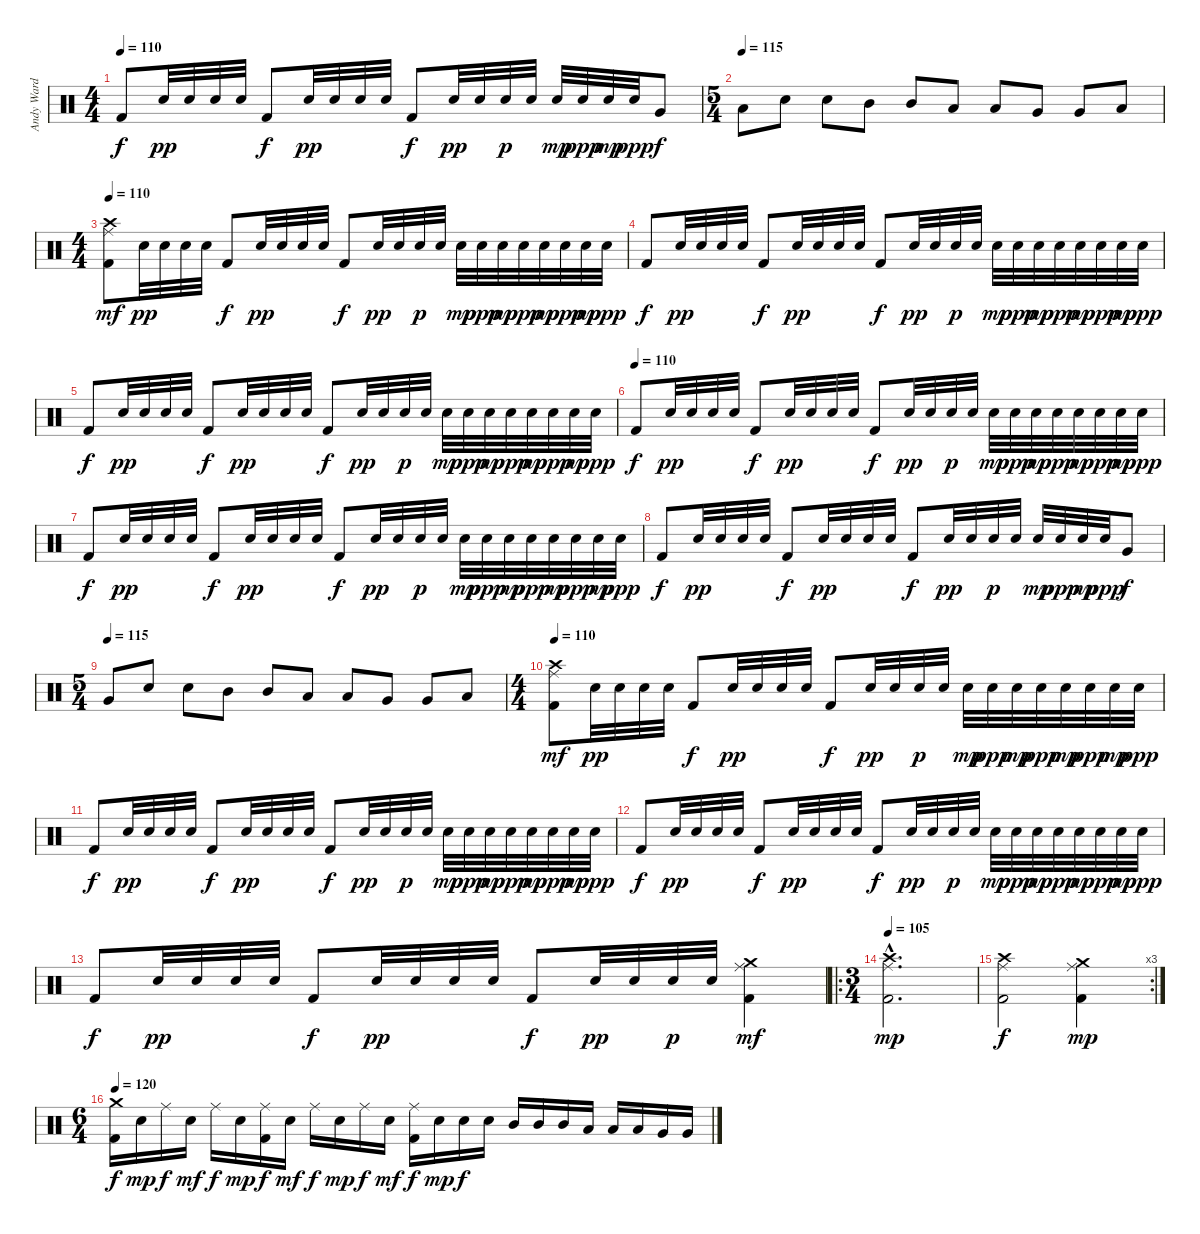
\track ("Andy Ward - Drums" "Andy Ward ") {instrument percussion}
\staff {score}
\articulation defaults
\ts (4 4)
\tempo 110
\clef neutral
\ks c "Kick (hit) 2".8{dy f} "Electric Snare (hit)".32{dy pp} "Electric Snare (hit)".32 "Electric Snare (hit)".32 "Electric Snare (hit)".32 "Kick (hit) 2".8{dy f} "Electric Snare (hit)".32{dy pp} "Electric Snare (hit)".32 "Electric Snare (hit)".32 "Electric Snare (hit)".32 "Kick (hit) 2".8{dy f} "Electric Snare (hit)".32{dy pp} "Electric Snare (hit)".32 "Electric Snare (hit)".32{dy p} "Electric Snare (hit)".32 "Electric Snare (hit)".32{dy mp} "Electric Snare (hit)".32{dy ppp} "Electric Snare (hit)".32{dy mp} "Electric Snare (hit)".32{dy ppp} "Very Low Tom (hit)".8{dy f}
|
\ts (5 4)
\tempo (115)
"Low Tom (hit)".8 "Electric Snare (hit)".8 "Electric Snare (hit)".8 "Mid Tom (hit)".8 "Mid Tom (hit)".8 "Low Tom (hit)".8 "Low Tom (hit)".8 "Very Low Tom (hit)".8 "Very Low Tom (hit)".8 "Low Floor Tom (hit)".8 |
\ts (4 4)
\tempo 110
("Ride (middle)" "Crash high (hit)" "Kick (hit) 2").8{dy mf} "Electric Snare (hit)".32{dy pp} "Electric Snare (hit)".32 "Electric Snare (hit)".32 "Electric Snare (hit)".32 "Kick (hit) 2".8{dy f} "Electric Snare (hit)".32{dy pp} "Electric Snare (hit)".32 "Electric Snare (hit)".32 "Electric Snare (hit)".32 "Kick (hit) 2".8{dy f} "Electric Snare (hit)".32{dy pp} "Electric Snare (hit)".32 "Electric Snare (hit)".32{dy p} "Electric Snare (hit)".32 "Electric Snare (hit)".32{dy mp} "Electric Snare (hit)".32{dy ppp} "Electric Snare (hit)".32{dy mp} "Electric Snare (hit)".32{dy ppp} "Electric Snare (hit)".32{dy mp} "Electric Snare (hit)".32{dy ppp} "Electric Snare (hit)".32{dy mp} "Electric Snare (hit)".32{dy ppp} |
"Kick (hit) 2".8{dy f} "Electric Snare (hit)".32{dy pp} "Electric Snare (hit)".32 "Electric Snare (hit)".32 "Electric Snare (hit)".32 "Kick (hit) 2".8{dy f} "Electric Snare (hit)".32{dy pp} "Electric Snare (hit)".32 "Electric Snare (hit)".32 "Electric Snare (hit)".32 "Kick (hit) 2".8{dy f} "Electric Snare (hit)".32{dy pp} "Electric Snare (hit)".32 "Electric Snare (hit)".32{dy p} "Electric Snare (hit)".32 "Electric Snare (hit)".32{dy mp} "Electric Snare (hit)".32{dy ppp} "Electric Snare (hit)".32{dy mp} "Electric Snare (hit)".32{dy ppp} "Electric Snare (hit)".32{dy mp} "Electric Snare (hit)".32{dy ppp} "Electric Snare (hit)".32{dy mp} "Electric Snare (hit)".32{dy ppp} |
"Kick (hit) 2".8{dy f} "Electric Snare (hit)".32{dy pp} "Electric Snare (hit)".32 "Electric Snare (hit)".32 "Electric Snare (hit)".32 "Kick (hit) 2".8{dy f} "Electric Snare (hit)".32{dy pp} "Electric Snare (hit)".32 "Electric Snare (hit)".32 "Electric Snare (hit)".32 "Kick (hit) 2".8{dy f} "Electric Snare (hit)".32{dy pp} "Electric Snare (hit)".32 "Electric Snare (hit)".32{dy p} "Electric Snare (hit)".32 "Electric Snare (hit)".32{dy mp} "Electric Snare (hit)".32{dy ppp} "Electric Snare (hit)".32{dy mp} "Electric Snare (hit)".32{dy ppp} "Electric Snare (hit)".32{dy mp} "Electric Snare (hit)".32{dy ppp} "Electric Snare (hit)".32{dy mp} "Electric Snare (hit)".32{dy ppp} |
\tempo (110)
"Kick (hit) 2".8{dy f} "Electric Snare (hit)".32{dy pp} "Electric Snare (hit)".32 "Electric Snare (hit)".32 "Electric Snare (hit)".32 "Kick (hit) 2".8{dy f} "Electric Snare (hit)".32{dy pp} "Electric Snare (hit)".32 "Electric Snare (hit)".32 "Electric Snare (hit)".32 "Kick (hit) 2".8{dy f} "Electric Snare (hit)".32{dy pp} "Electric Snare (hit)".32 "Electric Snare (hit)".32{dy p} "Electric Snare (hit)".32 "Electric Snare (hit)".32{dy mp} "Electric Snare (hit)".32{dy ppp} "Electric Snare (hit)".32{dy mp} "Electric Snare (hit)".32{dy ppp} "Electric Snare (hit)".32{dy mp} "Electric Snare (hit)".32{dy ppp} "Electric Snare (hit)".32{dy mp} "Electric Snare (hit)".32{dy ppp} |
"Kick (hit) 2".8{dy f} "Electric Snare (hit)".32{dy pp} "Electric Snare (hit)".32 "Electric Snare (hit)".32 "Electric Snare (hit)".32 "Kick (hit) 2".8{dy f} "Electric Snare (hit)".32{dy pp} "Electric Snare (hit)".32 "Electric Snare (hit)".32 "Electric Snare (hit)".32 "Kick (hit) 2".8{dy f} "Electric Snare (hit)".32{dy pp} "Electric Snare (hit)".32 "Electric Snare (hit)".32{dy p} "Electric Snare (hit)".32 "Electric Snare (hit)".32{dy mp} "Electric Snare (hit)".32{dy ppp} "Electric Snare (hit)".32{dy mp} "Electric Snare (hit)".32{dy ppp} "Electric Snare (hit)".32{dy mp} "Electric Snare (hit)".32{dy ppp} "Electric Snare (hit)".32{dy mp} "Electric Snare (hit)".32{dy ppp} |
"Kick (hit) 2".8{dy f} "Electric Snare (hit)".32{dy pp} "Electric Snare (hit)".32 "Electric Snare (hit)".32 "Electric Snare (hit)".32 "Kick (hit) 2".8{dy f} "Electric Snare (hit)".32{dy pp} "Electric Snare (hit)".32 "Electric Snare (hit)".32 "Electric Snare (hit)".32 "Kick (hit) 2".8{dy f} "Electric Snare (hit)".32{dy pp} "Electric Snare (hit)".32 "Electric Snare (hit)".32{dy p} "Electric Snare (hit)".32 "Electric Snare (hit)".32{dy mp} "Electric Snare (hit)".32{dy ppp} "Electric Snare (hit)".32{dy mp} "Electric Snare (hit)".32{dy ppp} "Very Low Tom (hit)".8{dy f} |
\ts (5 4)
\tempo (115)
"Very Low Tom (hit)".8 "Electric Snare (hit)".8 "Electric Snare (hit)".8 "Mid Tom (hit)".8 "Mid Tom (hit)".8 "Low Tom (hit)".8 "Low Tom (hit)".8 "Very Low Tom (hit)".8 "Very Low Tom (hit)".8 "Low Floor Tom (hit)".8 |
\ts (4 4)
\tempo 115
\tempo 110
("Ride (middle)" "Crash high (hit)" "Kick (hit) 2").8{dy mf} "Electric Snare (hit)".32{dy pp} "Electric Snare (hit)".32 "Electric Snare (hit)".32 "Electric Snare (hit)".32 "Kick (hit) 2".8{dy f} "Electric Snare (hit)".32{dy pp} "Electric Snare (hit)".32 "Electric Snare (hit)".32 "Electric Snare (hit)".32 "Kick (hit) 2".8{dy f} "Electric Snare (hit)".32{dy pp} "Electric Snare (hit)".32 "Electric Snare (hit)".32{dy p} "Electric Snare (hit)".32 "Electric Snare (hit)".32{dy mp} "Electric Snare (hit)".32{dy ppp} "Electric Snare (hit)".32{dy mp} "Electric Snare (hit)".32{dy ppp} "Electric Snare (hit)".32{dy mp} "Electric Snare (hit)".32{dy ppp} "Electric Snare (hit)".32{dy mp} "Electric Snare (hit)".32{dy ppp} |
"Kick (hit) 2".8{dy f} "Electric Snare (hit)".32{dy pp} "Electric Snare (hit)".32 "Electric Snare (hit)".32 "Electric Snare (hit)".32 "Kick (hit) 2".8{dy f} "Electric Snare (hit)".32{dy pp} "Electric Snare (hit)".32 "Electric Snare (hit)".32 "Electric Snare (hit)".32 "Kick (hit) 2".8{dy f} "Electric Snare (hit)".32{dy pp} "Electric Snare (hit)".32 "Electric Snare (hit)".32{dy p} "Electric Snare (hit)".32 "Electric Snare (hit)".32{dy mp} "Electric Snare (hit)".32{dy ppp} "Electric Snare (hit)".32{dy mp} "Electric Snare (hit)".32{dy ppp} "Electric Snare (hit)".32{dy mp} "Electric Snare (hit)".32{dy ppp} "Electric Snare (hit)".32{dy mp} "Electric Snare (hit)".32{dy ppp} |
"Kick (hit) 2".8{dy f} "Electric Snare (hit)".32{dy pp} "Electric Snare (hit)".32 "Electric Snare (hit)".32 "Electric Snare (hit)".32 "Kick (hit) 2".8{dy f} "Electric Snare (hit)".32{dy pp} "Electric Snare (hit)".32 "Electric Snare (hit)".32 "Electric Snare (hit)".32 "Kick (hit) 2".8{dy f} "Electric Snare (hit)".32{dy pp} "Electric Snare (hit)".32 "Electric Snare (hit)".32{dy p} "Electric Snare (hit)".32 "Electric Snare (hit)".32{dy mp} "Electric Snare (hit)".32{dy ppp} "Electric Snare (hit)".32{dy mp} "Electric Snare (hit)".32{dy ppp} "Electric Snare (hit)".32{dy mp} "Electric Snare (hit)".32{dy ppp} "Electric Snare (hit)".32{dy mp} "Electric Snare (hit)".32{dy ppp} |
"Kick (hit) 2".8{dy f} "Electric Snare (hit)".32{dy pp} "Electric Snare (hit)".32 "Electric Snare (hit)".32 "Electric Snare (hit)".32 "Kick (hit) 2".8{dy f} "Electric Snare (hit)".32{dy pp} "Electric Snare (hit)".32 "Electric Snare (hit)".32 "Electric Snare (hit)".32 "Kick (hit) 2".8{dy f} "Electric Snare (hit)".32{dy pp} "Electric Snare (hit)".32 "Electric Snare (hit)".32{dy p} "Electric Snare (hit)".32 ("Ride (middle)" "Crash medium (hit)" "Kick (hit) 2").4{dy mf} |
\ro
\ts (3 4)
\tempo 105
("Crash high (hit)"{hac} "Ride (middle)"{hac} "Kick (hit) 2"{hac}).2{d dy mp} |
\rc 3
("Crash high (hit)" "Ride (middle)" "Kick (hit) 2").2{dy f} ("Crash medium (hit)" "Ride (middle)" "Kick (hit) 2").4{dy mp} |
\ts (6 4)
\tempo 120
("Crash medium (hit)" "Kick (hit) 2").16{dy f} "Electric Snare (hit)".16{dy mp} "Ride (middle)".16{dy f} "Electric Snare (hit)".16{dy mf} "Ride (middle)".16{dy f} "Electric Snare (hit)".16{dy mp} ("Ride (middle)" "Kick (hit) 2").16{dy f} "Electric Snare (hit)".16{dy mf} "Ride (middle)".16{dy f} "Electric Snare (hit)".16{dy mp} "Ride (middle)".16{dy f} "Electric Snare (hit)".16{dy mf} ("Ride (middle)" "Kick (hit) 2").16{dy f} "Electric Snare (hit)".16{dy mp} "Electric Snare (hit)".16{dy f} "Electric Snare (hit)".16 "Mid Tom (hit)".16 "Mid Tom (hit)".16 "Mid Tom (hit)".16 "Low Tom (hit)".16 "Low Tom (hit)".16 "Low Tom (hit)".16 "Very Low Tom (hit)".16 "Very Low Tom (hit)".16
